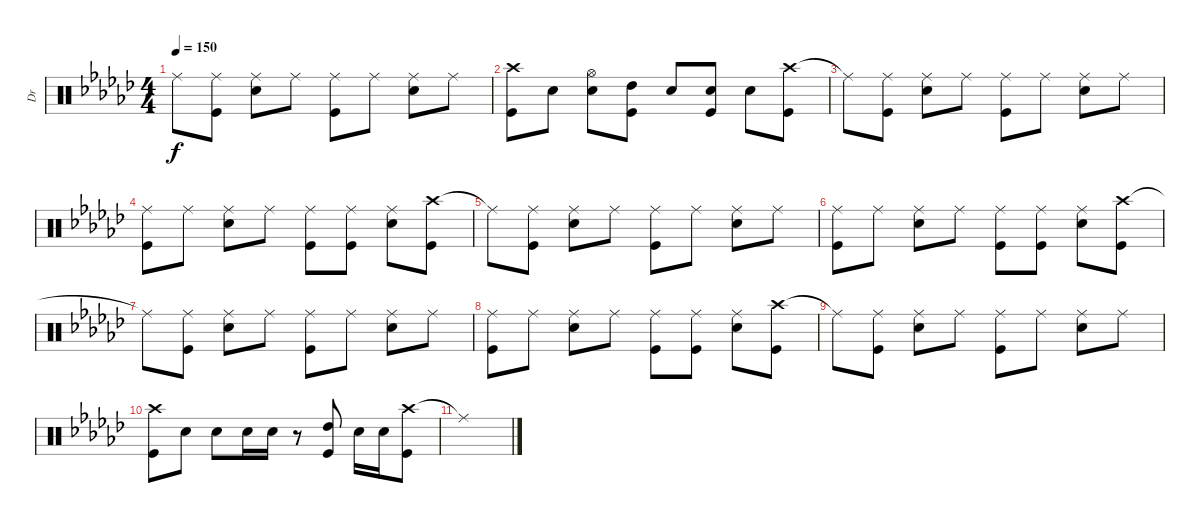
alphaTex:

\track ("Dr" "Dr") {instrument percussion}
\staff {score}
\articulation defaults
\ts (4 4)
\tempo 150
\clef neutral
\ks gb "Ride (middle)"{t}.8{dy f}
("Ride (middle)" "Kick (hit)").8 ("Ride (middle)" "Electric Snare (hit)").8 "Ride (middle)".8 ("Ride (middle)" "Kick (hit)").8 "Ride (middle)".8 ("Ride (middle)" "Electric Snare (hit)").8 "Ride (middle)".8 |
("Crash high (hit)" "Kick (hit)").8 "Electric Snare (hit)".8 ("Hi-Hat (open)" "Electric Snare (hit)").8 ("High Tom (hit)" "Kick (hit)").8 "Electric Snare (hit)".8 ("Electric Snare (hit)" "Kick (hit)").8 "Electric Snare (hit)".8 ("Crash high (hit)" "Kick (hit)").8 |
"Ride (middle)"{t}.8 ("Ride (middle)" "Kick (hit)").8 ("Ride (middle)" "Electric Snare (hit)").8 "Ride (middle)".8 ("Ride (middle)" "Kick (hit)").8 "Ride (middle)".8 ("Ride (middle)" "Electric Snare (hit)").8 "Ride (middle)".8 |
("Ride (middle)" "Kick (hit)").8 "Ride (middle)".8 ("Ride (middle)" "Electric Snare (hit)").8 "Ride (middle)".8 ("Ride (middle)" "Kick (hit)").8 ("Ride (middle)" "Kick (hit)").8 ("Ride (middle)" "Electric Snare (hit)").8 ("Crash high (hit)" "Kick (hit)").8 |
"Ride (middle)"{t}.8 ("Ride (middle)" "Kick (hit)").8 ("Ride (middle)" "Electric Snare (hit)").8 "Ride (middle)".8 ("Ride (middle)" "Kick (hit)").8 "Ride (middle)".8 ("Ride (middle)" "Electric Snare (hit)").8 "Ride (middle)".8 |
("Ride (middle)" "Kick (hit)").8 "Ride (middle)".8 ("Ride (middle)" "Electric Snare (hit)").8 "Ride (middle)".8 ("Ride (middle)" "Kick (hit)").8 ("Ride (middle)" "Kick (hit)").8 ("Ride (middle)" "Electric Snare (hit)").8 ("Crash high (hit)" "Kick (hit)").8 |
"Ride (middle)"{t}.8 ("Ride (middle)" "Kick (hit)").8 ("Ride (middle)" "Electric Snare (hit)").8 "Ride (middle)".8 ("Ride (middle)" "Kick (hit)").8 "Ride (middle)".8 ("Ride (middle)" "Electric Snare (hit)").8 "Ride (middle)".8 |
("Ride (middle)" "Kick (hit)").8 "Ride (middle)".8 ("Ride (middle)" "Electric Snare (hit)").8 "Ride (middle)".8 ("Ride (middle)" "Kick (hit)").8 ("Ride (middle)" "Kick (hit)").8 ("Ride (middle)" "Electric Snare (hit)").8 ("Crash high (hit)" "Kick (hit)").8 |
"Ride (middle)"{t}.8 ("Ride (middle)" "Kick (hit)").8 ("Ride (middle)" "Electric Snare (hit)").8 "Ride (middle)".8 ("Ride (middle)" "Kick (hit)").8 "Ride (middle)".8 ("Ride (middle)" "Electric Snare (hit)").8 "Ride (middle)".8 |
("Crash high (hit)" "Kick (hit)").8 "Electric Snare (hit)".8 "Electric Snare (hit)".8 "Electric Snare (hit)".16 "Electric Snare (hit)".16 r.8 ("High Tom (hit)" "Kick (hit)").8 "Electric Snare (hit)".16 "Electric Snare (hit)".16 ("Crash high (hit)" "Kick (hit)").8 |
"Ride (middle)"{t}.1
